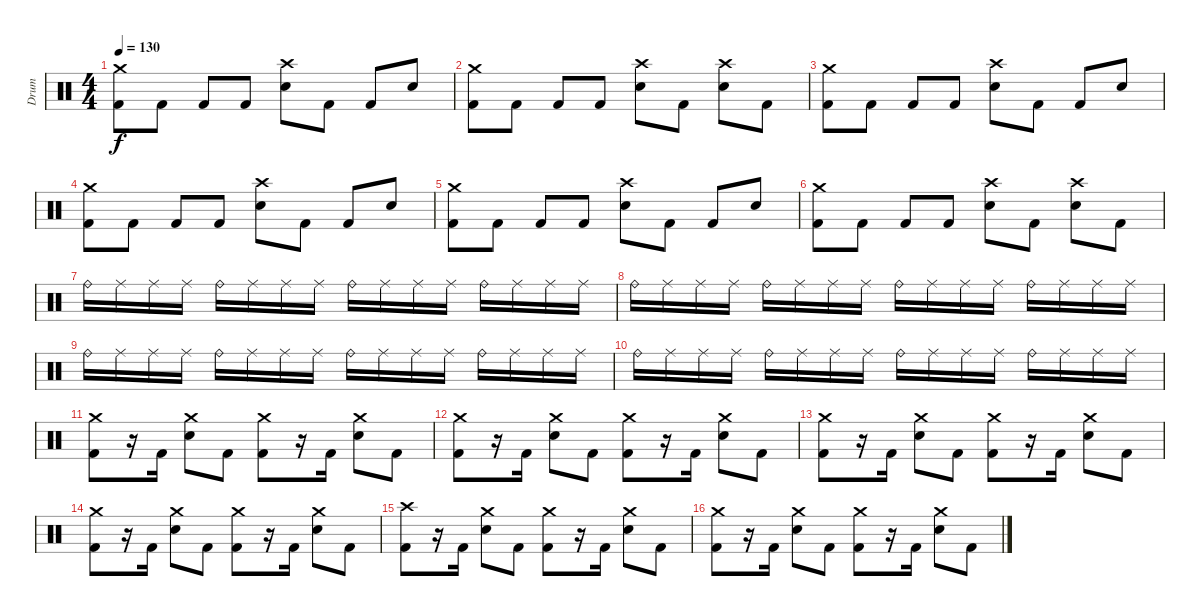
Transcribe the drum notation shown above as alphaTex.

\track ("Drum" "Drum") {instrument percussion}
\staff {score}
\articulation defaults
\ts (4 4)
\tempo 130
\clef neutral
\ks c
("Crash medium (hit)" "Kick (hit) 2").8{dy f} "Kick (hit) 2".8 "Kick (hit) 2".8 "Kick (hit) 2".8 ("Crash high (hit)" "Snare (hit) 2").8 "Kick (hit) 2".8 "Kick (hit) 2".8 "Snare (hit) 2".8 |
("Crash medium (hit)" "Kick (hit) 2").8 "Kick (hit) 2".8 "Kick (hit) 2".8 "Kick (hit) 2".8 ("Crash high (hit)" "Snare (hit) 2").8 "Kick (hit) 2".8 ("Crash high (hit)" "Snare (hit) 2").8 "Kick (hit) 2".8 |
("Crash medium (hit)" "Kick (hit) 2").8 "Kick (hit) 2".8 "Kick (hit) 2".8 "Kick (hit) 2".8 ("Crash high (hit)" "Snare (hit) 2").8 "Kick (hit) 2".8 "Kick (hit) 2".8 "Snare (hit) 2".8 |
("Crash medium (hit)" "Kick (hit) 2").8 "Kick (hit) 2".8 "Kick (hit) 2".8 "Kick (hit) 2".8 ("Crash high (hit)" "Snare (hit) 2").8 "Kick (hit) 2".8 "Kick (hit) 2".8 "Snare (hit) 2".8 |
("Crash medium (hit)" "Kick (hit) 2").8 "Kick (hit) 2".8 "Kick (hit) 2".8 "Kick (hit) 2".8 ("Crash high (hit)" "Snare (hit) 2").8 "Kick (hit) 2".8 "Kick (hit) 2".8 "Snare (hit) 2".8 |
("Crash medium (hit)" "Kick (hit) 2").8 "Kick (hit) 2".8 "Kick (hit) 2".8 "Kick (hit) 2".8 ("Crash high (hit)" "Snare (hit) 2").8 "Kick (hit) 2".8 ("Crash high (hit)" "Snare (hit) 2").8 "Kick (hit) 2".8 |
"Ride (bell)".16 "Ride (middle)".16 "Ride (middle)".16 "Ride (middle)".16 "Ride (bell)".16 "Ride (middle)".16 "Ride (middle)".16 "Ride (middle)".16 "Ride (bell)".16 "Ride (middle)".16 "Ride (middle)".16 "Ride (middle)".16 "Ride (bell)".16 "Ride (middle)".16 "Ride (middle)".16 "Ride (middle)".16 |
"Ride (bell)".16 "Ride (middle)".16 "Ride (middle)".16 "Ride (middle)".16 "Ride (bell)".16 "Ride (middle)".16 "Ride (middle)".16 "Ride (middle)".16 "Ride (bell)".16 "Ride (middle)".16 "Ride (middle)".16 "Ride (middle)".16 "Ride (bell)".16 "Ride (middle)".16 "Ride (middle)".16 "Ride (middle)".16 |
"Ride (bell)".16 "Ride (middle)".16 "Ride (middle)".16 "Ride (middle)".16 "Ride (bell)".16 "Ride (middle)".16 "Ride (middle)".16 "Ride (middle)".16 "Ride (bell)".16 "Ride (middle)".16 "Ride (middle)".16 "Ride (middle)".16 "Ride (bell)".16 "Ride (middle)".16 "Ride (middle)".16 "Ride (middle)".16 |
"Ride (bell)".16 "Ride (middle)".16 "Ride (middle)".16 "Ride (middle)".16 "Ride (bell)".16 "Ride (middle)".16 "Ride (middle)".16 "Ride (middle)".16 "Ride (bell)".16 "Ride (middle)".16 "Ride (middle)".16 "Ride (middle)".16 "Ride (bell)".16 "Ride (middle)".16 "Ride (middle)".16 "Ride (middle)".16 |
("Crash medium (hit)" "Kick (hit) 2").8 r.16 "Kick (hit) 2".16 ("Crash medium (hit)" "Snare (hit) 2").8 "Kick (hit) 2".8 ("Crash medium (hit)" "Kick (hit) 2").8 r.16 "Kick (hit) 2".16 ("Crash medium (hit)" "Snare (hit) 2").8 "Kick (hit) 2".8 |
("Crash medium (hit)" "Kick (hit) 2").8 r.16 "Kick (hit) 2".16 ("Crash medium (hit)" "Snare (hit) 2").8 "Kick (hit) 2".8 ("Crash medium (hit)" "Kick (hit) 2").8 r.16 "Kick (hit) 2".16 ("Crash medium (hit)" "Snare (hit) 2").8 "Kick (hit) 2".8 |
("Crash medium (hit)" "Kick (hit) 2").8 r.16 "Kick (hit) 2".16 ("Crash medium (hit)" "Snare (hit) 2").8 "Kick (hit) 2".8 ("Crash medium (hit)" "Kick (hit) 2").8 r.16 "Kick (hit) 2".16 ("Crash medium (hit)" "Snare (hit) 2").8 "Kick (hit) 2".8 |
("Crash medium (hit)" "Kick (hit) 2").8 r.16 "Kick (hit) 2".16 ("Crash medium (hit)" "Snare (hit) 2").8 "Kick (hit) 2".8 ("Crash medium (hit)" "Kick (hit) 2").8 r.16 "Kick (hit) 2".16 ("Crash medium (hit)" "Snare (hit) 2").8 "Kick (hit) 2".8 |
("Crash high (hit)" "Kick (hit) 2").8 r.16 "Kick (hit) 2".16 ("Crash medium (hit)" "Snare (hit) 2").8 "Kick (hit) 2".8 ("Crash medium (hit)" "Kick (hit) 2").8 r.16 "Kick (hit) 2".16 ("Crash medium (hit)" "Snare (hit) 2").8 "Kick (hit) 2".8 |
("Crash medium (hit)" "Kick (hit) 2").8 r.16 "Kick (hit) 2".16 ("Crash medium (hit)" "Snare (hit) 2").8 "Kick (hit) 2".8 ("Crash medium (hit)" "Kick (hit) 2").8 r.16 "Kick (hit) 2".16 ("Crash medium (hit)" "Snare (hit) 2").8 "Kick (hit) 2".8
